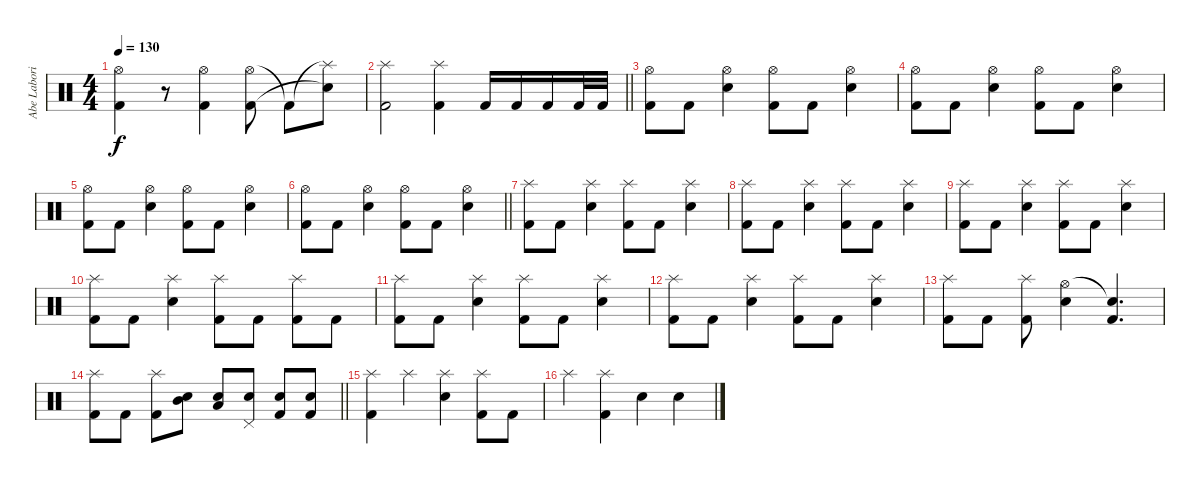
\track ("Abe Laboriel, Jr." "Abe Labori") {instrument percussion}
\staff {score}
\articulation defaults
\ts (4 4)
\tempo 130
\clef neutral
\ks c
("Hi-Hat (open)" "Kick (hit) 2").4{dy f} r.8 ("Hi-Hat (open)" "Kick (hit) 2").4 ("Hi-Hat (open)" "Kick (hit) 2").8 "Kick (hit) 2"{t}.8 ("Splash (hit)"{t} "Snare (hit) 2"{t}).8 |
\barLineRight lightlight
("Splash (hit)" "Kick (hit) 2").2 ("Splash (hit)" "Kick (hit) 2").4 "Kick (hit) 2".16 "Kick (hit) 2".16 "Kick (hit) 2".16 "Kick (hit) 2".32 "Kick (hit) 2".32 |
("Hi-Hat (open)" "Kick (hit) 2").8 "Kick (hit) 2".8 ("Hi-Hat (open)" "Snare (hit) 2").4 ("Hi-Hat (open)" "Kick (hit) 2").8 "Kick (hit) 2".8 ("Hi-Hat (open)" "Snare (hit) 2").4 |
("Hi-Hat (open)" "Kick (hit) 2").8 "Kick (hit) 2".8 ("Hi-Hat (open)" "Snare (hit) 2").4 ("Hi-Hat (open)" "Kick (hit) 2").8 "Kick (hit) 2".8 ("Hi-Hat (open)" "Snare (hit) 2").4 |
("Hi-Hat (open)" "Kick (hit) 2").8 "Kick (hit) 2".8 ("Hi-Hat (open)" "Snare (hit) 2").4 ("Hi-Hat (open)" "Kick (hit) 2").8 "Kick (hit) 2".8 ("Hi-Hat (open)" "Snare (hit) 2").4 |
\barLineRight lightlight
("Hi-Hat (open)" "Kick (hit) 2").8 "Kick (hit) 2".8 ("Hi-Hat (open)" "Snare (hit) 2").4 ("Hi-Hat (open)" "Kick (hit) 2").8 "Kick (hit) 2".8 ("Hi-Hat (open)" "Snare (hit) 2").4 |
("Splash (hit)" "Kick (hit) 2").8 "Kick (hit) 2".8 ("Splash (hit)" "Snare (hit) 2").4 ("Splash (hit)" "Kick (hit) 2").8 "Kick (hit) 2".8 ("Splash (hit)" "Snare (hit) 2").4 |
("Splash (hit)" "Kick (hit) 2").8 "Kick (hit) 2".8 ("Splash (hit)" "Snare (hit) 2").4 ("Splash (hit)" "Kick (hit) 2").8 "Kick (hit) 2".8 ("Splash (hit)" "Snare (hit) 2").4 |
("Splash (hit)" "Kick (hit) 2").8 "Kick (hit) 2".8 ("Splash (hit)" "Snare (hit) 2").4 ("Splash (hit)" "Kick (hit) 2").8 "Kick (hit) 2".8 ("Splash (hit)" "Snare (hit) 2").4 |
("Splash (hit)" "Kick (hit) 2").8 "Kick (hit) 2".8 ("Splash (hit)" "Snare (hit) 2").4 ("Splash (hit)" "Kick (hit) 2").8 "Kick (hit) 2".8 ("Splash (hit)" "Kick (hit) 2").8 "Kick (hit) 2".8 |
("Splash (hit)" "Kick (hit) 2").8 "Kick (hit) 2".8 ("Splash (hit)" "Snare (hit) 2").4 ("Splash (hit)" "Kick (hit) 2").8 "Kick (hit) 2".8 ("Splash (hit)" "Snare (hit) 2").4 |
("Splash (hit)" "Kick (hit) 2").8 "Kick (hit) 2".8 ("Splash (hit)" "Snare (hit) 2").4 ("Splash (hit)" "Kick (hit) 2").8 "Kick (hit) 2".8 ("Splash (hit)" "Snare (hit) 2").4 |
("Splash (hit)" "Kick (hit) 2").8 "Kick (hit) 2".8 ("Splash (hit)" "Kick (hit) 2").8 ("Hi-Hat (open)" "Snare (hit) 2").4 ("Snare (hit)"{t} "Kick (hit) 2").4{d} |
\barLineRight lightlight
("Splash (hit)" "Kick (hit) 2").8 "Kick (hit) 2".8 ("Splash (hit)" "Kick (hit) 2").8 ("Snare (hit) 2" "Mid Tom (hit)").8 ("Snare (hit) 2" "Low Tom (hit)").8 ("Snare (hit) 2" "Pedal Hi-Hat (hit)").8 ("Snare (hit) 2" "Kick (hit) 2").8 ("Snare (hit) 2" "Kick (hit) 2").8 |
("Splash (hit)" "Kick (hit) 2").4 "Splash (hit)".4 ("Splash (hit)" "Snare (hit) 2").4 ("Splash (hit)" "Kick (hit) 2").8 "Kick (hit) 2".8 |
"Splash (hit)".4 ("Splash (hit)" "Kick (hit) 2").4 "Snare (hit) 2".4 "Snare (hit) 2".4
